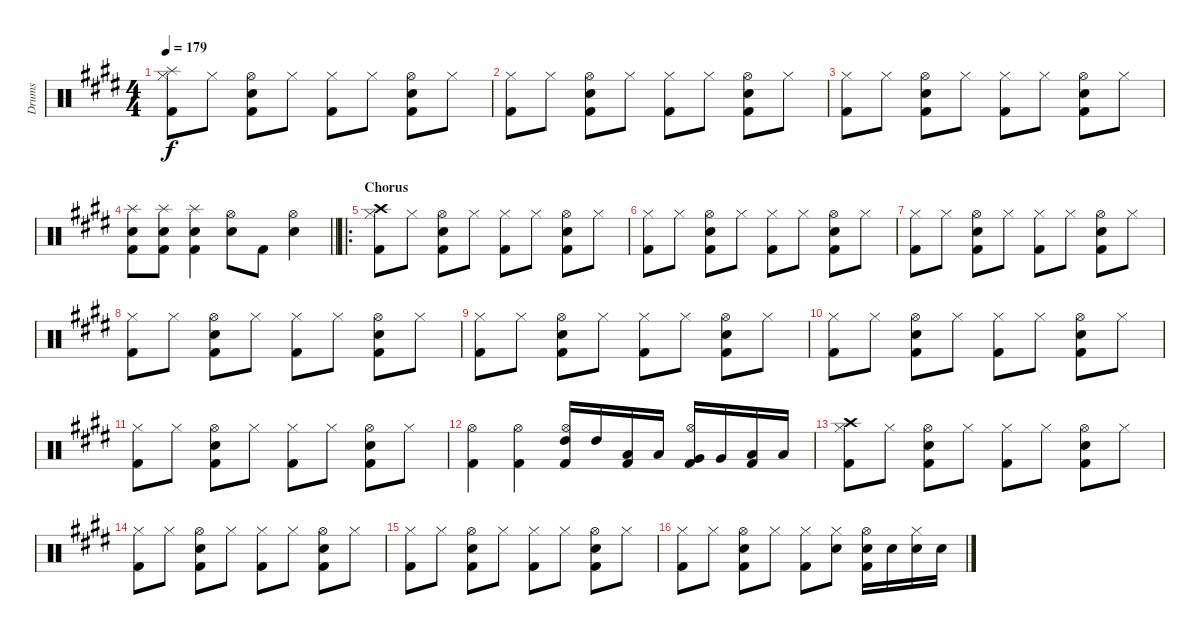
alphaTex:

\track ("Drums" "Drums") {instrument percussion}
\staff {score}
\articulation defaults
\ts (4 4)
\tempo 179
\clef neutral
\ks e
("Hi-Hat (closed)" "Splash (hit)" "Kick (hit) 2").8{dy f} "Hi-Hat (closed)".8 ("Hi-Hat (open)" "Snare (hit) 2" "Kick (hit) 2").8 "Hi-Hat (closed)".8 ("Hi-Hat (closed)" "Kick (hit) 2").8 "Hi-Hat (closed)".8 ("Hi-Hat (open)" "Snare (hit) 2" "Kick (hit) 2").8 "Hi-Hat (closed)".8 |
("Hi-Hat (closed)" "Kick (hit) 2").8 "Hi-Hat (closed)".8 ("Hi-Hat (open)" "Snare (hit) 2" "Kick (hit) 2").8 "Hi-Hat (closed)".8 ("Hi-Hat (closed)" "Kick (hit) 2").8 "Hi-Hat (closed)".8 ("Hi-Hat (open)" "Snare (hit) 2" "Kick (hit) 2").8 "Hi-Hat (closed)".8 |
("Hi-Hat (closed)" "Kick (hit) 2").8 "Hi-Hat (closed)".8 ("Hi-Hat (open)" "Snare (hit) 2" "Kick (hit) 2").8 "Hi-Hat (closed)".8 ("Hi-Hat (closed)" "Kick (hit) 2").8 "Hi-Hat (closed)".8 ("Hi-Hat (open)" "Snare (hit) 2" "Kick (hit) 2").8 "Hi-Hat (closed)".8 |
\barLineRight lightlight
("Splash (hit)" "Snare (hit) 2" "Kick (hit) 2").8 ("Splash (hit)" "Snare (hit) 2" "Kick (hit) 2").8 ("Splash (hit)" "Snare (hit) 2" "Kick (hit) 2").4 ("Hi-Hat (open)" "Snare (hit) 2").8 "Kick (hit) 2".8 ("Hi-Hat (open)" "Snare (hit) 2").4 |
\ro
\section ("" "Chorus")
("Hi-Hat (closed)" "Crash high (hit)" "Kick (hit) 2").8 "Hi-Hat (closed)".8 ("Hi-Hat (open)" "Snare (hit) 2" "Kick (hit) 2").8 "Hi-Hat (closed)".8 ("Hi-Hat (closed)" "Kick (hit) 2").8 "Hi-Hat (closed)".8 ("Hi-Hat (open)" "Snare (hit) 2" "Kick (hit) 2").8 "Hi-Hat (closed)".8 |
("Hi-Hat (closed)" "Kick (hit) 2").8 "Hi-Hat (closed)".8 ("Hi-Hat (open)" "Snare (hit) 2" "Kick (hit) 2").8 "Hi-Hat (closed)".8 ("Hi-Hat (closed)" "Kick (hit) 2").8 "Hi-Hat (closed)".8 ("Hi-Hat (open)" "Snare (hit) 2" "Kick (hit) 2").8 "Hi-Hat (closed)".8 |
("Hi-Hat (closed)" "Kick (hit) 2").8 "Hi-Hat (closed)".8 ("Hi-Hat (open)" "Snare (hit) 2" "Kick (hit) 2").8 "Hi-Hat (closed)".8 ("Hi-Hat (closed)" "Kick (hit) 2").8 "Hi-Hat (closed)".8 ("Hi-Hat (open)" "Snare (hit) 2" "Kick (hit) 2").8 "Hi-Hat (closed)".8 |
("Hi-Hat (closed)" "Kick (hit) 2").8 "Hi-Hat (closed)".8 ("Hi-Hat (open)" "Snare (hit) 2" "Kick (hit) 2").8 "Hi-Hat (closed)".8 ("Hi-Hat (closed)" "Kick (hit) 2").8 "Hi-Hat (closed)".8 ("Hi-Hat (open)" "Snare (hit) 2" "Kick (hit) 2").8 "Hi-Hat (closed)".8 |
("Hi-Hat (closed)" "Kick (hit) 2").8 "Hi-Hat (closed)".8 ("Hi-Hat (open)" "Snare (hit) 2" "Kick (hit) 2").8 "Hi-Hat (closed)".8 ("Hi-Hat (closed)" "Kick (hit) 2").8 "Hi-Hat (closed)".8 ("Hi-Hat (open)" "Snare (hit) 2" "Kick (hit) 2").8 "Hi-Hat (closed)".8 |
("Hi-Hat (closed)" "Kick (hit) 2").8 "Hi-Hat (closed)".8 ("Hi-Hat (open)" "Snare (hit) 2" "Kick (hit) 2").8 "Hi-Hat (closed)".8 ("Hi-Hat (closed)" "Kick (hit) 2").8 "Hi-Hat (closed)".8 ("Hi-Hat (open)" "Snare (hit) 2" "Kick (hit) 2").8 "Hi-Hat (closed)".8 |
("Hi-Hat (closed)" "Kick (hit) 2").8 "Hi-Hat (closed)".8 ("Hi-Hat (open)" "Snare (hit) 2" "Kick (hit) 2").8 "Hi-Hat (closed)".8 ("Hi-Hat (closed)" "Kick (hit) 2").8 "Hi-Hat (closed)".8 ("Hi-Hat (open)" "Snare (hit) 2" "Kick (hit) 2").8 "Hi-Hat (closed)".8 |
("Hi-Hat (open)" "Kick (hit) 2").4 ("Hi-Hat (open)" "Kick (hit) 2").4 ("Hi-Hat (open)" "High Tom (hit)" "Kick (hit) 2").16 "High Tom (hit)".16 ("Low Tom (hit)" "Kick (hit) 2").16 "Low Tom (hit)".16 ("Hi-Hat (open)" "Very Low Tom (hit)" "Kick (hit) 2").16 "Very Low Tom (hit)".16 ("Low Floor Tom (hit)" "Kick (hit) 2").16 "Low Floor Tom (hit)".16 |
("Hi-Hat (closed)" "Crash high (hit)" "Kick (hit) 2").8 "Hi-Hat (closed)".8 ("Hi-Hat (open)" "Snare (hit) 2" "Kick (hit) 2").8 "Hi-Hat (closed)".8 ("Hi-Hat (closed)" "Kick (hit) 2").8 "Hi-Hat (closed)".8 ("Hi-Hat (open)" "Snare (hit) 2" "Kick (hit) 2").8 "Hi-Hat (closed)".8 |
("Hi-Hat (closed)" "Kick (hit) 2").8 "Hi-Hat (closed)".8 ("Hi-Hat (open)" "Snare (hit) 2" "Kick (hit) 2").8 "Hi-Hat (closed)".8 ("Hi-Hat (closed)" "Kick (hit) 2").8 "Hi-Hat (closed)".8 ("Hi-Hat (open)" "Snare (hit) 2" "Kick (hit) 2").8 "Hi-Hat (closed)".8 |
("Hi-Hat (closed)" "Kick (hit) 2").8 "Hi-Hat (closed)".8 ("Hi-Hat (open)" "Snare (hit) 2" "Kick (hit) 2").8 "Hi-Hat (closed)".8 ("Hi-Hat (closed)" "Kick (hit) 2").8 "Hi-Hat (closed)".8 ("Hi-Hat (open)" "Snare (hit) 2" "Kick (hit) 2").8 "Hi-Hat (closed)".8 |
("Hi-Hat (closed)" "Kick (hit) 2").8 "Hi-Hat (closed)".8 ("Hi-Hat (open)" "Snare (hit) 2" "Kick (hit) 2").8 "Hi-Hat (closed)".8 ("Hi-Hat (closed)" "Kick (hit) 2").8 ("Hi-Hat (closed)" "Snare (hit) 2").8 ("Hi-Hat (open)" "Snare (hit) 2" "Kick (hit) 2").16 "Snare (hit) 2".16 ("Hi-Hat (closed)" "Snare (hit) 2").16 "Snare (hit) 2".16
